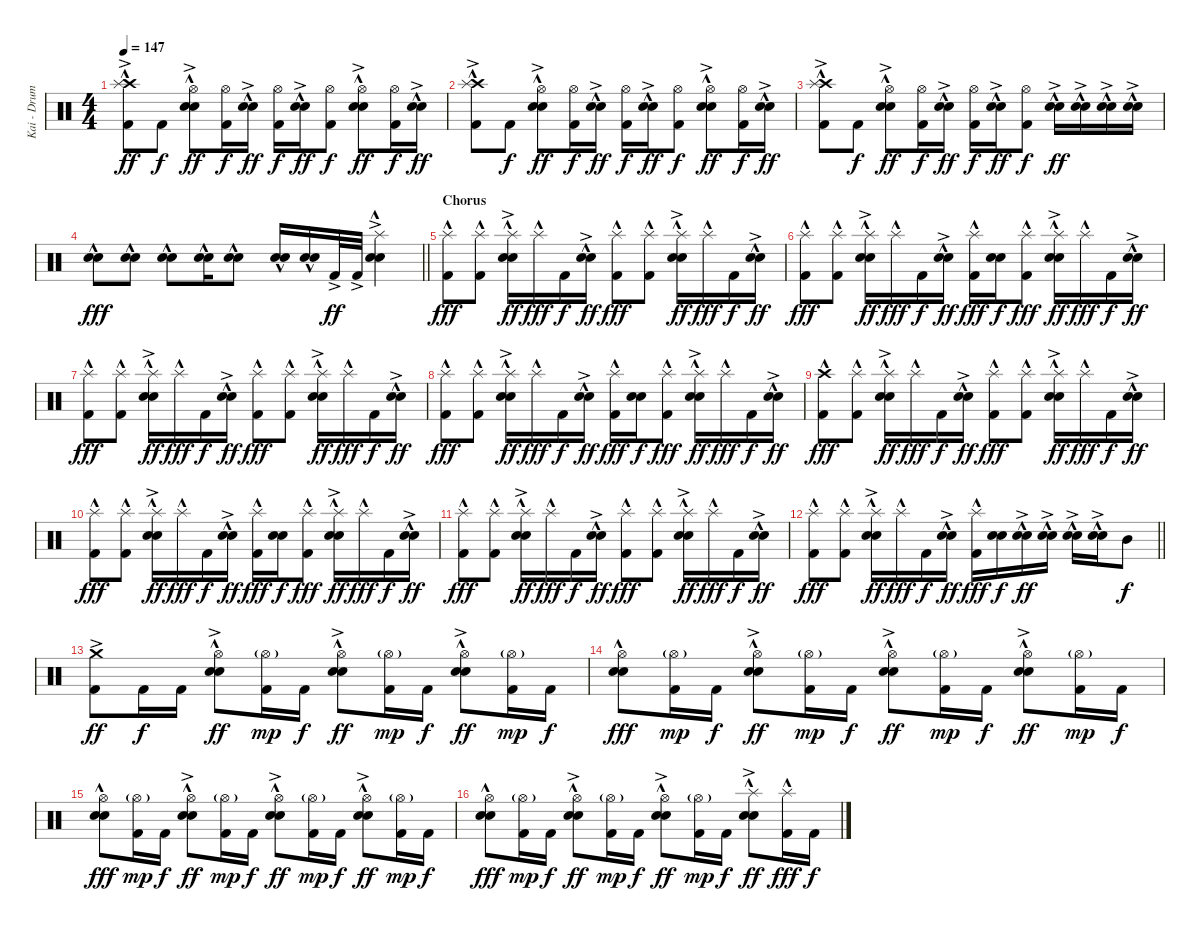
\track ("Kai - Drums" "Kai - Drum") {instrument percussion}
\staff {score}
\articulation defaults
\ts (4 4)
\tempo 147
\clef neutral
\ks c
("Crash high (hit)"{hac} "Splash (hit)"{ac} "Kick (hit) 2").8{dy ff} "Kick (hit) 2".8{dy f} ("Hi-Hat (open)" "Electric Snare (hit)"{hac} "Snare (hit) 2"{ac}).8{dy ff} ("Hi-Hat (open)" "Kick (hit) 2").16{dy f} ("Electric Snare (hit)"{hac} "Snare (hit) 2"{ac}).16{dy ff} ("Hi-Hat (open)" "Kick (hit) 2").16{dy f} ("Electric Snare (hit)"{hac} "Snare (hit) 2"{ac}).16{dy ff} ("Hi-Hat (open)" "Kick (hit) 2").8{dy f} ("Hi-Hat (open)" "Electric Snare (hit)"{hac} "Snare (hit) 2"{ac}).8{dy ff} ("Hi-Hat (open)" "Kick (hit) 2").16{dy f} ("Electric Snare (hit)"{hac} "Snare (hit) 2"{ac}).16{dy ff} |
("Crash high (hit)"{hac} "Splash (hit)"{ac} "Kick (hit) 2").8 "Kick (hit) 2".8{dy f} ("Hi-Hat (open)" "Electric Snare (hit)"{hac} "Snare (hit) 2"{ac}).8{dy ff} ("Hi-Hat (open)" "Kick (hit) 2").16{dy f} ("Electric Snare (hit)"{hac} "Snare (hit) 2"{ac}).16{dy ff} ("Hi-Hat (open)" "Kick (hit) 2").16{dy f} ("Electric Snare (hit)"{hac} "Snare (hit) 2"{ac}).16{dy ff} ("Hi-Hat (open)" "Kick (hit) 2").8{dy f} ("Hi-Hat (open)" "Electric Snare (hit)"{hac} "Snare (hit) 2"{ac}).8{dy ff} ("Hi-Hat (open)" "Kick (hit) 2").16{dy f} ("Electric Snare (hit)"{hac} "Snare (hit) 2"{ac}).16{dy ff} |
("Crash high (hit)"{hac} "Splash (hit)"{ac} "Kick (hit) 2").8 "Kick (hit) 2".8{dy f} ("Hi-Hat (open)" "Electric Snare (hit)"{hac} "Snare (hit) 2"{ac}).8{dy ff} ("Hi-Hat (open)" "Kick (hit) 2").16{dy f} ("Electric Snare (hit)"{hac} "Snare (hit) 2"{ac}).16{dy ff} ("Hi-Hat (open)" "Kick (hit) 2").16{dy f} ("Electric Snare (hit)"{hac} "Snare (hit) 2"{ac}).16{dy ff} ("Hi-Hat (open)" "Kick (hit) 2").8{dy f} ("Electric Snare (hit)"{hac} "Snare (hit) 2"{ac}).16{dy ff} ("Electric Snare (hit)"{hac} "Snare (hit) 2"{ac}).16 ("Electric Snare (hit)"{hac} "Snare (hit) 2"{ac}).16 ("Electric Snare (hit)"{hac} "Snare (hit) 2"{ac}).16 |
\barLineRight lightlight
("Electric Snare (hit)"{hac} "Snare (hit) 2").8{dy fff} ("Electric Snare (hit)"{hac} "Snare (hit) 2").8 ("Electric Snare (hit)"{hac} "Snare (hit) 2").8 ("Electric Snare (hit)"{hac} "Snare (hit) 2").16 ("Electric Snare (hit)"{hac} "Snare (hit) 2").8 ("Electric Snare (hit)"{hac} "Snare (hit) 2").16 ("Electric Snare (hit)"{hac} "Snare (hit) 2").16 "Kick (hit) 2"{ac}.32{dy ff} "Kick (hit) 2"{ac}.32 ("Splash (hit)"{ac} "Electric Snare (hit)"{hac} "Snare (hit) 2"{ac}).4 |
\section ("" "Chorus")
("Splash (hit)"{hac} "Kick (hit) 2").8{dy fff} ("Splash (hit)"{hac} "Kick (hit) 2").8 ("Splash (hit)"{hac} "Electric Snare (hit)"{hac} "Snare (hit) 2"{ac}).16{dy ff} "Splash (hit)"{hac}.16{dy fff} "Kick (hit) 2".16{dy f} ("Electric Snare (hit)"{hac} "Snare (hit) 2"{ac}).16{dy ff} ("Splash (hit)"{hac} "Kick (hit) 2").8{dy fff} ("Splash (hit)"{hac} "Kick (hit) 2").8 ("Splash (hit)"{hac} "Electric Snare (hit)"{hac} "Snare (hit) 2"{ac}).16{dy ff} "Splash (hit)"{hac}.16{dy fff} "Kick (hit) 2".16{dy f} ("Electric Snare (hit)"{hac} "Snare (hit) 2"{ac}).16{dy ff} |
("Splash (hit)"{hac} "Kick (hit) 2").8{dy fff} ("Splash (hit)"{hac} "Kick (hit) 2").8 ("Splash (hit)"{hac} "Electric Snare (hit)"{hac} "Snare (hit) 2"{ac}).16{dy ff} "Splash (hit)"{hac}.16{dy fff} "Kick (hit) 2".16{dy f} ("Electric Snare (hit)"{hac} "Snare (hit) 2"{ac}).16{dy ff} ("Splash (hit)"{hac} "Kick (hit) 2").16{dy fff} ("Electric Snare (hit)" "Snare (hit) 2").16{dy f} ("Splash (hit)"{hac} "Kick (hit) 2").8{dy fff} ("Splash (hit)"{hac} "Electric Snare (hit)"{hac} "Snare (hit) 2"{ac}).16{dy ff} "Splash (hit)"{hac}.16{dy fff} "Kick (hit) 2".16{dy f} ("Electric Snare (hit)"{hac} "Snare (hit) 2"{ac}).16{dy ff} |
("Splash (hit)"{hac} "Kick (hit) 2").8{dy fff} ("Splash (hit)"{hac} "Kick (hit) 2").8 ("Splash (hit)"{hac} "Electric Snare (hit)"{hac} "Snare (hit) 2"{ac}).16{dy ff} "Splash (hit)"{hac}.16{dy fff} "Kick (hit) 2".16{dy f} ("Electric Snare (hit)"{hac} "Snare (hit) 2"{ac}).16{dy ff} ("Splash (hit)"{hac} "Kick (hit) 2").8{dy fff} ("Splash (hit)"{hac} "Kick (hit) 2").8 ("Splash (hit)"{hac} "Electric Snare (hit)"{hac} "Snare (hit) 2"{ac}).16{dy ff} "Splash (hit)"{hac}.16{dy fff} "Kick (hit) 2".16{dy f} ("Electric Snare (hit)"{hac} "Snare (hit) 2"{ac}).16{dy ff} |
("Splash (hit)"{hac} "Kick (hit) 2").8{dy fff} ("Splash (hit)"{hac} "Kick (hit) 2").8 ("Splash (hit)"{hac} "Electric Snare (hit)"{hac} "Snare (hit) 2"{ac}).16{dy ff} "Splash (hit)"{hac}.16{dy fff} "Kick (hit) 2".16{dy f} ("Electric Snare (hit)"{hac} "Snare (hit) 2"{ac}).16{dy ff} ("Splash (hit)"{hac} "Kick (hit) 2").16{dy fff} ("Electric Snare (hit)" "Snare (hit) 2").16{dy f} ("Splash (hit)"{hac} "Kick (hit) 2").8{dy fff} ("Splash (hit)"{hac} "Electric Snare (hit)"{hac} "Snare (hit) 2"{ac}).16{dy ff} "Splash (hit)"{hac}.16{dy fff} "Kick (hit) 2".16{dy f} ("Electric Snare (hit)"{hac} "Snare (hit) 2"{ac}).16{dy ff} |
("Crash high (hit)"{hac} "Kick (hit) 2").8{dy fff} ("Splash (hit)"{hac} "Kick (hit) 2").8 ("Splash (hit)"{hac} "Electric Snare (hit)"{hac} "Snare (hit) 2"{ac}).16{dy ff} "Splash (hit)"{hac}.16{dy fff} "Kick (hit) 2".16{dy f} ("Electric Snare (hit)"{hac} "Snare (hit) 2"{ac}).16{dy ff} ("Splash (hit)"{hac} "Kick (hit) 2").8{dy fff} ("Splash (hit)"{hac} "Kick (hit) 2").8 ("Splash (hit)"{hac} "Electric Snare (hit)"{hac} "Snare (hit) 2"{ac}).16{dy ff} "Splash (hit)"{hac}.16{dy fff} "Kick (hit) 2".16{dy f} ("Electric Snare (hit)"{hac} "Snare (hit) 2"{ac}).16{dy ff} |
("Splash (hit)"{hac} "Kick (hit) 2").8{dy fff} ("Splash (hit)"{hac} "Kick (hit) 2").8 ("Splash (hit)"{hac} "Electric Snare (hit)"{hac} "Snare (hit) 2"{ac}).16{dy ff} "Splash (hit)"{hac}.16{dy fff} "Kick (hit) 2".16{dy f} ("Electric Snare (hit)"{hac} "Snare (hit) 2"{ac}).16{dy ff} ("Splash (hit)"{hac} "Kick (hit) 2").16{dy fff} ("Electric Snare (hit)" "Snare (hit) 2").16{dy f} ("Splash (hit)"{hac} "Kick (hit) 2").8{dy fff} ("Splash (hit)"{hac} "Electric Snare (hit)"{hac} "Snare (hit) 2"{ac}).16{dy ff} "Splash (hit)"{hac}.16{dy fff} "Kick (hit) 2".16{dy f} ("Electric Snare (hit)"{hac} "Snare (hit) 2"{ac}).16{dy ff} |
("Splash (hit)"{hac} "Kick (hit) 2").8{dy fff} ("Splash (hit)"{hac} "Kick (hit) 2").8 ("Splash (hit)"{hac} "Electric Snare (hit)"{hac} "Snare (hit) 2"{ac}).16{dy ff} "Splash (hit)"{hac}.16{dy fff} "Kick (hit) 2".16{dy f} ("Electric Snare (hit)"{hac} "Snare (hit) 2"{ac}).16{dy ff} ("Splash (hit)"{hac} "Kick (hit) 2").8{dy fff} ("Splash (hit)"{hac} "Kick (hit) 2").8 ("Splash (hit)"{hac} "Electric Snare (hit)"{hac} "Snare (hit) 2"{ac}).16{dy ff} "Splash (hit)"{hac}.16{dy fff} "Kick (hit) 2".16{dy f} ("Electric Snare (hit)"{hac} "Snare (hit) 2"{ac}).16{dy ff} |
\barLineRight lightlight
("Splash (hit)"{hac} "Kick (hit) 2").8{dy fff} ("Splash (hit)"{hac} "Kick (hit) 2").8 ("Splash (hit)"{hac} "Electric Snare (hit)"{hac} "Snare (hit) 2"{ac}).16{dy ff} "Splash (hit)"{hac}.16{dy fff} "Kick (hit) 2".16{dy f} ("Electric Snare (hit)"{hac} "Snare (hit) 2"{ac}).16{dy ff} ("Splash (hit)"{hac} "Kick (hit) 2").16{dy fff} ("Electric Snare (hit)" "Snare (hit) 2").16{dy f} ("Electric Snare (hit)"{hac} "Snare (hit) 2"{ac}).16{dy ff} ("Electric Snare (hit)"{hac} "Snare (hit) 2"{ac}).16 ("Electric Snare (hit)"{hac} "Snare (hit) 2"{ac}).16 ("Electric Snare (hit)"{hac} "Snare (hit) 2"{ac}).16 "Mid Tom (hit)".8{dy f} |
\section ("" "")
("Crash medium (hit)"{ac} "Kick (hit) 2").8{dy ff} "Kick (hit) 2".16{dy f} "Kick (hit) 2".16 ("Hi-Hat (open)" "Electric Snare (hit)"{hac} "Snare (hit) 2"{ac}).8{dy ff} ("Hi-Hat (open)"{g} "Kick (hit) 2").16{dy mp} "Kick (hit) 2".16{dy f} ("Hi-Hat (open)" "Electric Snare (hit)"{hac} "Snare (hit) 2"{ac}).8{dy ff} ("Hi-Hat (open)"{g} "Kick (hit) 2").16{dy mp} "Kick (hit) 2".16{dy f} ("Hi-Hat (open)" "Electric Snare (hit)"{hac} "Snare (hit) 2"{ac}).8{dy ff} ("Hi-Hat (open)"{g} "Kick (hit) 2").16{dy mp} "Kick (hit) 2".16{dy f} |
("Hi-Hat (open)" "Electric Snare (hit)"{hac} "Snare (hit) 2").8{dy fff} ("Hi-Hat (open)"{g} "Kick (hit) 2").16{dy mp} "Kick (hit) 2".16{dy f} ("Hi-Hat (open)" "Electric Snare (hit)"{hac} "Snare (hit) 2"{ac}).8{dy ff} ("Hi-Hat (open)"{g} "Kick (hit) 2").16{dy mp} "Kick (hit) 2".16{dy f} ("Hi-Hat (open)" "Electric Snare (hit)"{hac} "Snare (hit) 2"{ac}).8{dy ff} ("Hi-Hat (open)"{g} "Kick (hit) 2").16{dy mp} "Kick (hit) 2".16{dy f} ("Hi-Hat (open)" "Electric Snare (hit)"{hac} "Snare (hit) 2"{ac}).8{dy ff} ("Hi-Hat (open)"{g} "Kick (hit) 2").16{dy mp} "Kick (hit) 2".16{dy f} |
("Hi-Hat (open)" "Electric Snare (hit)"{hac} "Snare (hit) 2").8{dy fff} ("Hi-Hat (open)"{g} "Kick (hit) 2").16{dy mp} "Kick (hit) 2".16{dy f} ("Hi-Hat (open)" "Electric Snare (hit)"{hac} "Snare (hit) 2"{ac}).8{dy ff} ("Hi-Hat (open)"{g} "Kick (hit) 2").16{dy mp} "Kick (hit) 2".16{dy f} ("Hi-Hat (open)" "Electric Snare (hit)"{hac} "Snare (hit) 2"{ac}).8{dy ff} ("Hi-Hat (open)"{g} "Kick (hit) 2").16{dy mp} "Kick (hit) 2".16{dy f} ("Hi-Hat (open)" "Electric Snare (hit)"{hac} "Snare (hit) 2"{ac}).8{dy ff} ("Hi-Hat (open)"{g} "Kick (hit) 2").16{dy mp} "Kick (hit) 2".16{dy f} |
("Hi-Hat (open)" "Electric Snare (hit)"{hac} "Snare (hit) 2").8{dy fff} ("Hi-Hat (open)"{g} "Kick (hit) 2").16{dy mp} "Kick (hit) 2".16{dy f} ("Hi-Hat (open)" "Electric Snare (hit)"{hac} "Snare (hit) 2"{ac}).8{dy ff} ("Hi-Hat (open)"{g} "Kick (hit) 2").16{dy mp} "Kick (hit) 2".16{dy f} ("Hi-Hat (open)" "Electric Snare (hit)"{hac} "Snare (hit) 2"{ac}).8{dy ff} ("Hi-Hat (open)"{g} "Kick (hit) 2").16{dy mp} "Kick (hit) 2".16{dy f} ("Splash (hit)"{hac} "Electric Snare (hit)"{hac} "Snare (hit) 2"{ac}).8{dy ff} ("Splash (hit)"{hac} "Kick (hit) 2").16{dy fff} "Kick (hit) 2".16{dy f}
